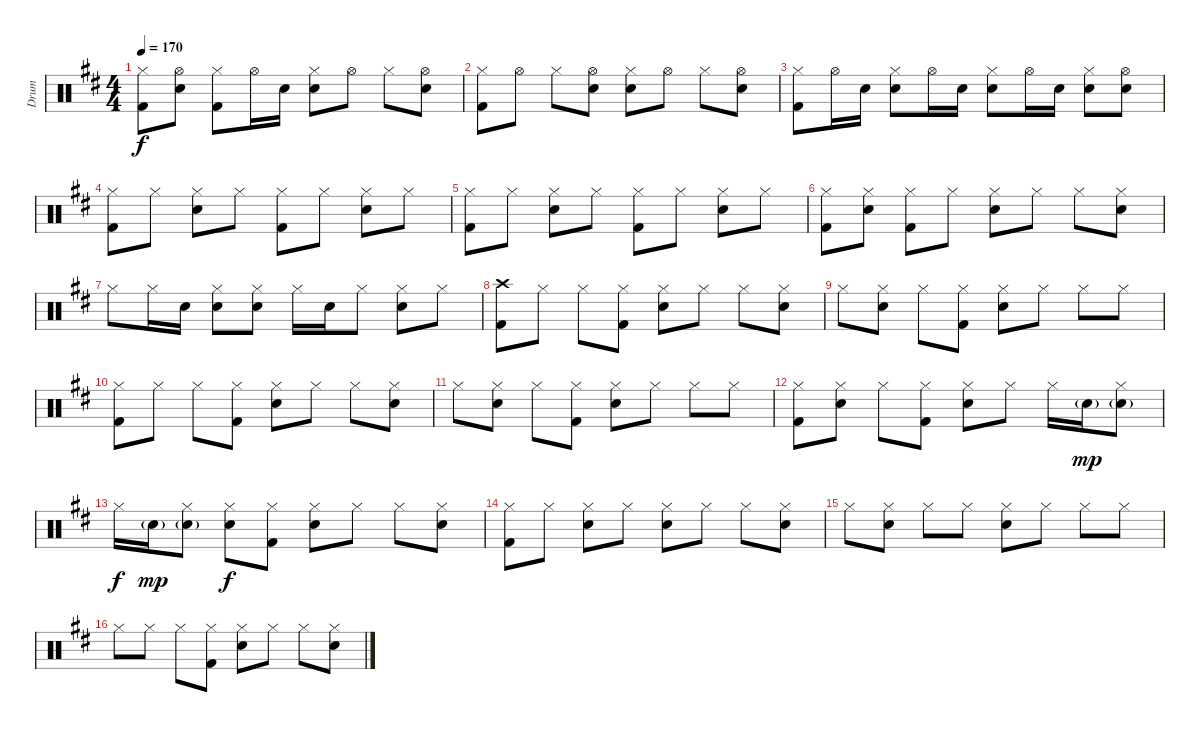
\track ("Drum" "Drum") {instrument percussion}
\staff {score}
\articulation defaults
\ts (4 4)
\tempo 170
\clef neutral
\ks d
("Hi-Hat (closed)" "Kick (hit) 2").8{dy f} ("Hi-Hat (open)" "Electric Snare (hit)").8 ("Hi-Hat (closed)" "Kick (hit) 2").8 "Hi-Hat (open)".16 "Electric Snare (hit)".16 ("Hi-Hat (closed)" "Electric Snare (hit)").8 "Hi-Hat (open)".8 "Hi-Hat (closed)".8 ("Hi-Hat (open)" "Electric Snare (hit)").8 |
("Hi-Hat (closed)" "Kick (hit) 2").8 "Hi-Hat (open)".8 "Hi-Hat (closed)".8 ("Hi-Hat (open)" "Electric Snare (hit)").8 ("Hi-Hat (closed)" "Electric Snare (hit)").8 "Hi-Hat (open)".8 "Hi-Hat (closed)".8 ("Hi-Hat (open)" "Electric Snare (hit)").8 |
("Hi-Hat (closed)" "Kick (hit) 2").8 "Hi-Hat (open)".16 "Electric Snare (hit)".16 ("Hi-Hat (closed)" "Electric Snare (hit)").8 "Hi-Hat (open)".16 "Electric Snare (hit)".16 ("Hi-Hat (closed)" "Electric Snare (hit)").8 "Hi-Hat (open)".16 "Electric Snare (hit)".16 ("Hi-Hat (closed)" "Electric Snare (hit)").8 ("Hi-Hat (open)" "Electric Snare (hit)").8 |
("Hi-Hat (closed)" "Kick (hit) 2").8 "Hi-Hat (closed)".8 ("Hi-Hat (closed)" "Electric Snare (hit)").8 "Hi-Hat (closed)".8 ("Hi-Hat (closed)" "Kick (hit) 2").8 "Hi-Hat (closed)".8 ("Hi-Hat (closed)" "Electric Snare (hit)").8 "Hi-Hat (closed)".8 |
("Hi-Hat (closed)" "Kick (hit) 2").8 "Hi-Hat (closed)".8 ("Hi-Hat (closed)" "Electric Snare (hit)").8 "Hi-Hat (closed)".8 ("Hi-Hat (closed)" "Kick (hit) 2").8 "Hi-Hat (closed)".8 ("Hi-Hat (closed)" "Electric Snare (hit)").8 "Hi-Hat (closed)".8 |
("Hi-Hat (closed)" "Kick (hit) 2").8 ("Hi-Hat (closed)" "Electric Snare (hit)").8 ("Hi-Hat (closed)" "Kick (hit) 2").8 "Hi-Hat (closed)".8 ("Hi-Hat (closed)" "Electric Snare (hit)").8 "Hi-Hat (closed)".8 "Hi-Hat (closed)".8 ("Hi-Hat (closed)" "Electric Snare (hit)").8 |
"Hi-Hat (closed)".8 "Hi-Hat (closed)".16 "Electric Snare (hit)".16 ("Hi-Hat (closed)" "Electric Snare (hit)").8 ("Hi-Hat (closed)" "Electric Snare (hit)").8 "Hi-Hat (closed)".16 "Electric Snare (hit)".16 "Hi-Hat (closed)".8 ("Hi-Hat (closed)" "Electric Snare (hit)").8 "Hi-Hat (closed)".8 |
("Crash high (hit)" "Kick (hit) 2").8 "Hi-Hat (closed)".8 "Hi-Hat (closed)".8 ("Hi-Hat (closed)" "Kick (hit) 2").8 ("Hi-Hat (closed)" "Electric Snare (hit)").8 "Hi-Hat (closed)".8 "Hi-Hat (closed)".8 ("Hi-Hat (closed)" "Electric Snare (hit)").8 |
"Hi-Hat (closed)".8 ("Hi-Hat (closed)" "Electric Snare (hit)").8 "Hi-Hat (closed)".8 ("Hi-Hat (closed)" "Kick (hit) 2").8 ("Hi-Hat (closed)" "Electric Snare (hit)").8 "Hi-Hat (closed)".8 "Hi-Hat (closed)".8 "Hi-Hat (closed)".8 |
("Hi-Hat (closed)" "Kick (hit) 2").8 "Hi-Hat (closed)".8 "Hi-Hat (closed)".8 ("Hi-Hat (closed)" "Kick (hit) 2").8 ("Hi-Hat (closed)" "Electric Snare (hit)").8 "Hi-Hat (closed)".8 "Hi-Hat (closed)".8 ("Hi-Hat (closed)" "Electric Snare (hit)").8 |
"Hi-Hat (closed)".8 ("Hi-Hat (closed)" "Electric Snare (hit)").8 "Hi-Hat (closed)".8 ("Hi-Hat (closed)" "Kick (hit) 2").8 ("Hi-Hat (closed)" "Electric Snare (hit)").8 "Hi-Hat (closed)".8 "Hi-Hat (closed)".8 "Hi-Hat (closed)".8 |
("Hi-Hat (closed)" "Kick (hit) 2").8 ("Hi-Hat (closed)" "Electric Snare (hit)").8 "Hi-Hat (closed)".8 ("Hi-Hat (closed)" "Kick (hit) 2").8 ("Hi-Hat (closed)" "Electric Snare (hit)").8 "Hi-Hat (closed)".8 "Hi-Hat (closed)".16 "Electric Snare (hit)"{g}.16{dy mp} ("Hi-Hat (closed)" "Electric Snare (hit)"{g}).8 |
"Hi-Hat (closed)".16{dy f} "Electric Snare (hit)"{g}.16{dy mp} ("Hi-Hat (closed)" "Electric Snare (hit)"{g}).8 ("Hi-Hat (closed)" "Electric Snare (hit)").8{dy f} ("Hi-Hat (closed)" "Kick (hit) 2").8 ("Hi-Hat (closed)" "Electric Snare (hit)").8 "Hi-Hat (closed)".8 "Hi-Hat (closed)".8 ("Hi-Hat (closed)" "Electric Snare (hit)").8 |
("Hi-Hat (closed)" "Kick (hit) 2").8 "Hi-Hat (closed)".8 ("Hi-Hat (closed)" "Electric Snare (hit)").8 "Hi-Hat (closed)".8 ("Hi-Hat (closed)" "Electric Snare (hit)").8 "Hi-Hat (closed)".8 "Hi-Hat (closed)".8 ("Hi-Hat (closed)" "Electric Snare (hit)").8 |
"Hi-Hat (closed)".8 ("Hi-Hat (closed)" "Electric Snare (hit)").8 "Hi-Hat (closed)".8 "Hi-Hat (closed)".8 ("Hi-Hat (closed)" "Electric Snare (hit)").8 "Hi-Hat (closed)".8 "Hi-Hat (closed)".8 "Hi-Hat (closed)".8 |
"Hi-Hat (closed)".8 "Hi-Hat (closed)".8 "Hi-Hat (closed)".8 ("Hi-Hat (closed)" "Kick (hit) 2").8 ("Hi-Hat (closed)" "Electric Snare (hit)").8 "Hi-Hat (closed)".8 "Hi-Hat (closed)".8 ("Hi-Hat (closed)" "Electric Snare (hit)").8
